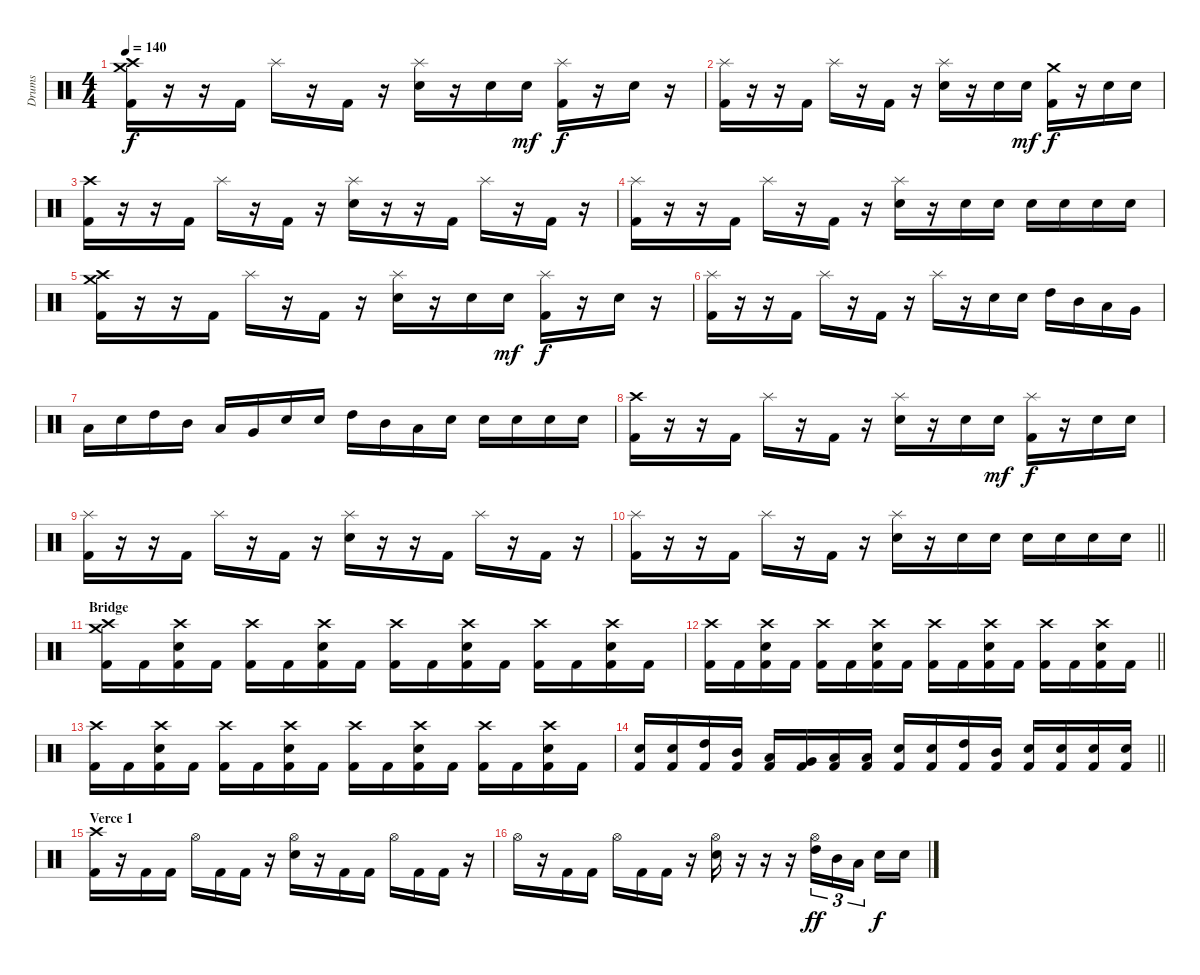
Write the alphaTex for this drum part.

\track ("Drums" "Drums") {instrument percussion}
\staff {score}
\articulation defaults
\ts (4 4)
\tempo 140
\clef neutral
\ks c
("Crash high (hit)" "Crash medium (hit)" "Kick (hit) 2").16{dy f} r.16 r.16 "Kick (hit) 2".16 "Splash (hit)".16 r.16 "Kick (hit) 2".16 r.16 ("Splash (hit)" "Electric Snare (hit)").16 r.16 "Electric Snare (hit)".16 "Electric Snare (hit)".16{dy mf} ("Splash (hit)" "Kick (hit) 2").16{dy f} r.16 "Electric Snare (hit)".16 r.16 |
("Splash (hit)" "Kick (hit) 2").16 r.16 r.16 "Kick (hit) 2".16 "Splash (hit)".16 r.16 "Kick (hit) 2".16 r.16 ("Splash (hit)" "Electric Snare (hit)").16 r.16 "Electric Snare (hit)".16 "Electric Snare (hit)".16{dy mf} ("Crash medium (hit)" "Kick (hit) 2").16{dy f} r.16 "Electric Snare (hit)".16 "Electric Snare (hit)".16 |
("Crash high (hit)" "Kick (hit) 2").16 r.16 r.16 "Kick (hit) 2".16 "Splash (hit)".16 r.16 "Kick (hit) 2".16 r.16 ("Splash (hit)" "Electric Snare (hit)").16 r.16 r.16 "Kick (hit) 2".16 "Splash (hit)".16 r.16 "Kick (hit) 2".16 r.16 |
("Splash (hit)" "Kick (hit) 2").16 r.16 r.16 "Kick (hit) 2".16 "Splash (hit)".16 r.16 "Kick (hit) 2".16 r.16 ("Splash (hit)" "Electric Snare (hit)").16 r.16 "Electric Snare (hit)".16 "Electric Snare (hit)".16 "Electric Snare (hit)".16 "Electric Snare (hit)".16 "Electric Snare (hit)".16 "Electric Snare (hit)".16 |
("Crash high (hit)" "Crash medium (hit)" "Kick (hit) 2").16 r.16 r.16 "Kick (hit) 2".16 "Splash (hit)".16 r.16 "Kick (hit) 2".16 r.16 ("Splash (hit)" "Electric Snare (hit)").16 r.16 "Electric Snare (hit)".16 "Electric Snare (hit)".16{dy mf} ("Splash (hit)" "Kick (hit) 2").16{dy f} r.16 "Electric Snare (hit)".16 r.16 |
("Splash (hit)" "Kick (hit) 2").16 r.16 r.16 "Kick (hit) 2".16 "Splash (hit)".16 r.16 "Kick (hit) 2".16 r.16 "Splash (hit)".16 r.16 "Electric Snare (hit)".16 "Electric Snare (hit)".16 "High Tom (hit)".16 "Mid Tom (hit)".16 "Low Tom (hit)".16 "Very Low Tom (hit)".16 |
"Low Floor Tom (hit)".16 "Electric Snare (hit)".16 "High Tom (hit)".16 "Mid Tom (hit)".16 "Low Tom (hit)".16 "Very Low Tom (hit)".16 "Electric Snare (hit)".16 "Electric Snare (hit)".16 "High Tom (hit)".16 "Mid Tom (hit)".16 "Low Tom (hit)".16 "Electric Snare (hit)".16 "Electric Snare (hit)".16 "Electric Snare (hit)".16 "Electric Snare (hit)".16 "Electric Snare (hit)".16 |
("Crash high (hit)" "Kick (hit) 2").16 r.16 r.16 "Kick (hit) 2".16 "Splash (hit)".16 r.16 "Kick (hit) 2".16 r.16 ("Splash (hit)" "Electric Snare (hit)").16 r.16 "Electric Snare (hit)".16 "Electric Snare (hit)".16{dy mf} ("Splash (hit)" "Kick (hit) 2").16{dy f} r.16 "Electric Snare (hit)".16 "Electric Snare (hit)".16 |
("Splash (hit)" "Kick (hit) 2").16 r.16 r.16 "Kick (hit) 2".16 "Splash (hit)".16 r.16 "Kick (hit) 2".16 r.16 ("Splash (hit)" "Electric Snare (hit)").16 r.16 r.16 "Kick (hit) 2".16 "Splash (hit)".16 r.16 "Kick (hit) 2".16 r.16 |
\barLineRight lightlight
("Splash (hit)" "Kick (hit) 2").16 r.16 r.16 "Kick (hit) 2".16 "Splash (hit)".16 r.16 "Kick (hit) 2".16 r.16 ("Splash (hit)" "Electric Snare (hit)").16 r.16 "Electric Snare (hit)".16 "Electric Snare (hit)".16 "Electric Snare (hit)".16 "Electric Snare (hit)".16 "Electric Snare (hit)".16 "Electric Snare (hit)".16 |
\section ("" "Bridge")
("Crash high (hit)" "Crash medium (hit)" "Kick (hit) 2").16 "Kick (hit) 2".16 ("Crash high (hit)" "Electric Snare (hit)" "Kick (hit) 2").16 "Kick (hit) 2".16 ("Crash high (hit)" "Kick (hit) 2").16 "Kick (hit) 2".16 ("Crash high (hit)" "Electric Snare (hit)" "Kick (hit) 2").16 "Kick (hit) 2".16 ("Crash high (hit)" "Kick (hit) 2").16 "Kick (hit) 2".16 ("Crash high (hit)" "Electric Snare (hit)" "Kick (hit) 2").16 "Kick (hit) 2".16 ("Crash high (hit)" "Kick (hit) 2").16 "Kick (hit) 2".16 ("Crash high (hit)" "Electric Snare (hit)" "Kick (hit) 2").16 "Kick (hit) 2".16 |
\barLineRight lightlight
("Crash high (hit)" "Kick (hit) 2").16 "Kick (hit) 2".16 ("Crash high (hit)" "Electric Snare (hit)" "Kick (hit) 2").16 "Kick (hit) 2".16 ("Crash high (hit)" "Kick (hit) 2").16 "Kick (hit) 2".16 ("Crash high (hit)" "Electric Snare (hit)" "Kick (hit) 2").16 "Kick (hit) 2".16 ("Crash high (hit)" "Kick (hit) 2").16 "Kick (hit) 2".16 ("Crash high (hit)" "Electric Snare (hit)" "Kick (hit) 2").16 "Kick (hit) 2".16 ("Crash high (hit)" "Kick (hit) 2").16 "Kick (hit) 2".16 ("Crash high (hit)" "Electric Snare (hit)" "Kick (hit) 2").16 "Kick (hit) 2".16 |
("Crash high (hit)" "Kick (hit) 2").16 "Kick (hit) 2".16 ("Crash high (hit)" "Electric Snare (hit)" "Kick (hit) 2").16 "Kick (hit) 2".16 ("Crash high (hit)" "Kick (hit) 2").16 "Kick (hit) 2".16 ("Crash high (hit)" "Electric Snare (hit)" "Kick (hit) 2").16 "Kick (hit) 2".16 ("Crash high (hit)" "Kick (hit) 2").16 "Kick (hit) 2".16 ("Crash high (hit)" "Electric Snare (hit)" "Kick (hit) 2").16 "Kick (hit) 2".16 ("Crash high (hit)" "Kick (hit) 2").16 "Kick (hit) 2".16 ("Crash high (hit)" "Electric Snare (hit)" "Kick (hit) 2").16 "Kick (hit) 2".16 |
\barLineRight lightlight
("Electric Snare (hit)" "Kick (hit) 2").16 ("Electric Snare (hit)" "Kick (hit) 2").16 ("High Tom (hit)" "Kick (hit) 2").16 ("Mid Tom (hit)" "Kick (hit) 2").16 ("Low Tom (hit)" "Kick (hit) 2").16 ("Very Low Tom (hit)" "Kick (hit) 2").16 ("Low Floor Tom (hit)" "Kick (hit) 2").16 ("Low Floor Tom (hit)" "Kick (hit) 2").16 ("Electric Snare (hit)" "Kick (hit) 2").16 ("Electric Snare (hit)" "Kick (hit) 2").16 ("High Tom (hit)" "Kick (hit) 2").16 ("Mid Tom (hit)" "Kick (hit) 2").16 ("Electric Snare (hit)" "Kick (hit) 2").16 ("Electric Snare (hit)" "Kick (hit) 2").16 ("Electric Snare (hit)" "Kick (hit) 2").16 ("Electric Snare (hit)" "Kick (hit) 2").16 |
\section ("" "Verce 1")
("Crash high (hit)" "Kick (hit) 2").16 r.16 "Kick (hit) 2".16 "Kick (hit) 2".16 "Hi-Hat (open)".16 "Kick (hit) 2".16 "Kick (hit) 2".16 r.16 ("Hi-Hat (open)" "Electric Snare (hit)").16 r.16 "Kick (hit) 2".16 "Kick (hit) 2".16 "Hi-Hat (open)".16 "Kick (hit) 2".16 "Kick (hit) 2".16 r.16 |
"Hi-Hat (open)".16 r.16 "Kick (hit) 2".16 "Kick (hit) 2".16 "Hi-Hat (open)".16 "Kick (hit) 2".16 "Kick (hit) 2".16 r.16 ("Hi-Hat (open)" "Electric Snare (hit)").16 r.16 r.16 r.16 ("Hi-Hat (open)" "High Tom (hit)").16{tu (3 2) dy ff} "Mid Tom (hit)".16{tu (3 2)} "Low Tom (hit)".16{tu (3 2) beam splitsecondary} "Electric Snare (hit)".16{dy f} "Electric Snare (hit)".16
